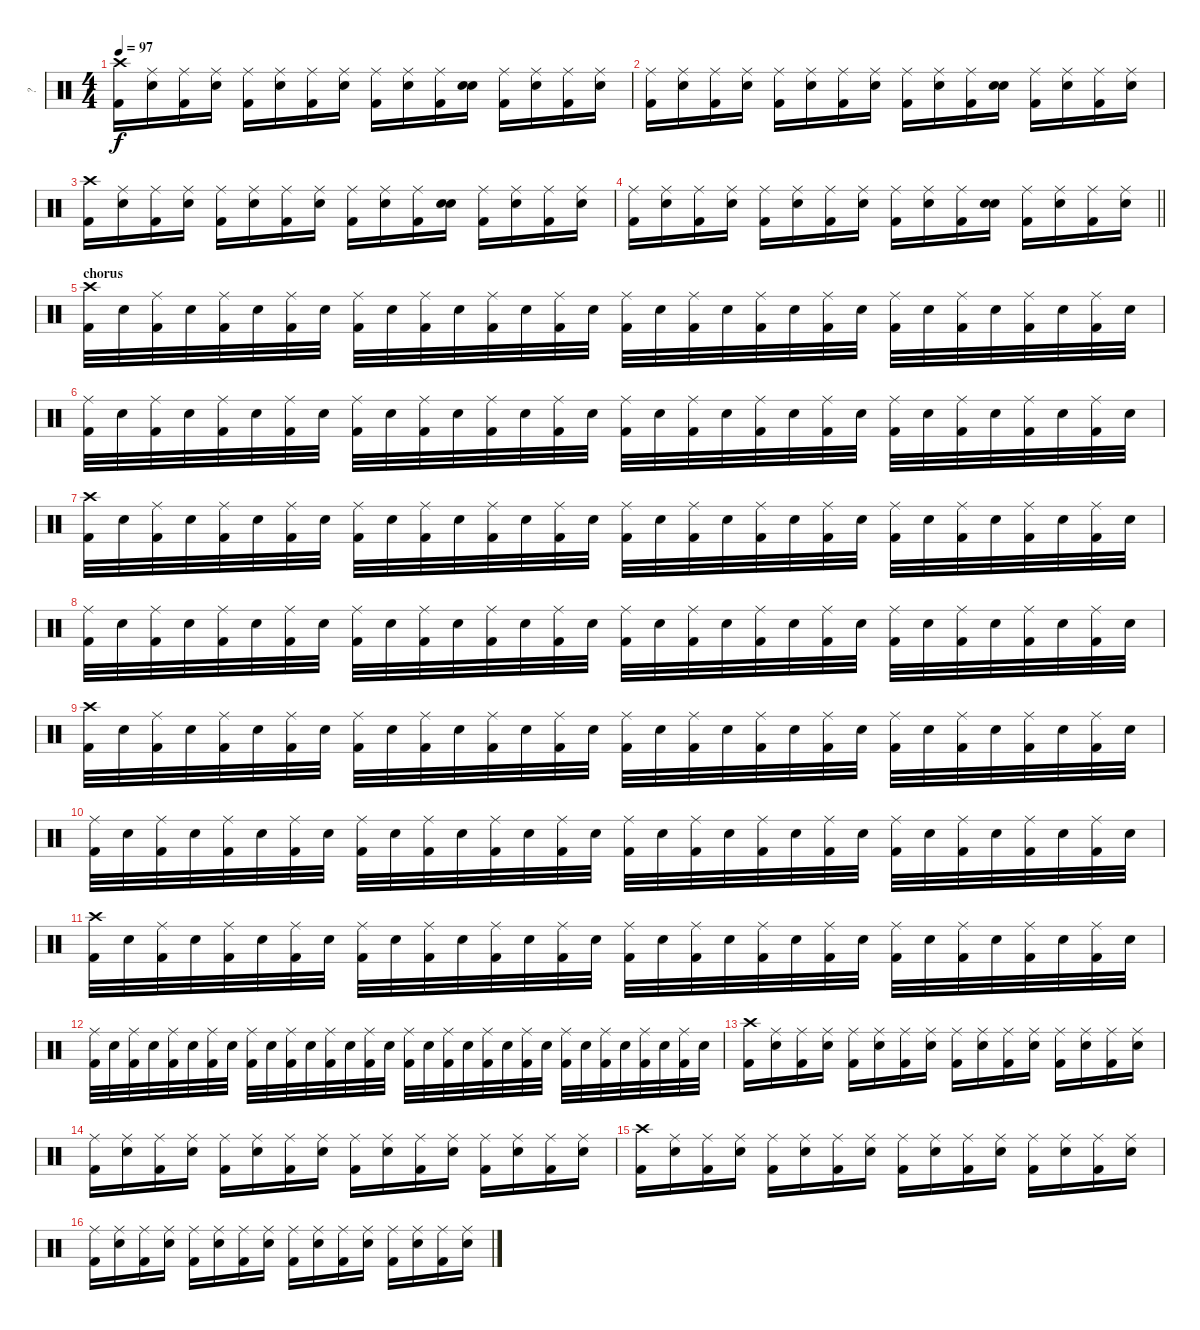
\track ("?" "?") {instrument percussion}
\staff {score}
\articulation defaults
\ts (4 4)
\tempo 97
\clef neutral
\ks c
("Crash high (hit)" "Kick (hit) 2").16{dy f} ("Ride (middle)" "Electric Snare (hit)").16 ("Ride (middle)" "Kick (hit) 2").16 ("Ride (middle)" "Electric Snare (hit)").16 ("Ride (middle)" "Kick (hit) 2").16 ("Ride (middle)" "Electric Snare (hit)").16 ("Ride (middle)" "Kick (hit) 2").16 ("Ride (middle)" "Electric Snare (hit)").16 ("Ride (middle)" "Kick (hit) 2").16 ("Ride (middle)" "Electric Snare (hit)").16 ("Ride (middle)" "Kick (hit) 2").16 ("Snare (hit)" "Electric Snare (hit)").16 ("Ride (middle)" "Kick (hit) 2").16 ("Ride (middle)" "Electric Snare (hit)").16 ("Ride (middle)" "Kick (hit) 2").16 ("Ride (middle)" "Electric Snare (hit)").16 |
("Ride (middle)" "Kick (hit) 2").16 ("Ride (middle)" "Electric Snare (hit)").16 ("Ride (middle)" "Kick (hit) 2").16 ("Ride (middle)" "Electric Snare (hit)").16 ("Ride (middle)" "Kick (hit) 2").16 ("Ride (middle)" "Electric Snare (hit)").16 ("Ride (middle)" "Kick (hit) 2").16 ("Ride (middle)" "Electric Snare (hit)").16 ("Ride (middle)" "Kick (hit) 2").16 ("Ride (middle)" "Electric Snare (hit)").16 ("Ride (middle)" "Kick (hit) 2").16 ("Snare (hit)" "Electric Snare (hit)").16 ("Ride (middle)" "Kick (hit) 2").16 ("Ride (middle)" "Electric Snare (hit)").16 ("Ride (middle)" "Kick (hit) 2").16 ("Ride (middle)" "Electric Snare (hit)").16 |
("Crash high (hit)" "Kick (hit) 2").16 ("Ride (middle)" "Electric Snare (hit)").16 ("Ride (middle)" "Kick (hit) 2").16 ("Ride (middle)" "Electric Snare (hit)").16 ("Ride (middle)" "Kick (hit) 2").16 ("Ride (middle)" "Electric Snare (hit)").16 ("Ride (middle)" "Kick (hit) 2").16 ("Ride (middle)" "Electric Snare (hit)").16 ("Ride (middle)" "Kick (hit) 2").16 ("Ride (middle)" "Electric Snare (hit)").16 ("Ride (middle)" "Kick (hit) 2").16 ("Snare (hit)" "Electric Snare (hit)").16 ("Ride (middle)" "Kick (hit) 2").16 ("Ride (middle)" "Electric Snare (hit)").16 ("Ride (middle)" "Kick (hit) 2").16 ("Ride (middle)" "Electric Snare (hit)").16 |
\barLineRight lightlight
("Ride (middle)" "Kick (hit) 2").16 ("Ride (middle)" "Electric Snare (hit)").16 ("Ride (middle)" "Kick (hit) 2").16 ("Ride (middle)" "Electric Snare (hit)").16 ("Ride (middle)" "Kick (hit) 2").16 ("Ride (middle)" "Electric Snare (hit)").16 ("Ride (middle)" "Kick (hit) 2").16 ("Ride (middle)" "Electric Snare (hit)").16 ("Ride (middle)" "Kick (hit) 2").16 ("Ride (middle)" "Electric Snare (hit)").16 ("Ride (middle)" "Kick (hit) 2").16 ("Snare (hit)" "Electric Snare (hit)").16 ("Ride (middle)" "Kick (hit) 2").16 ("Ride (middle)" "Electric Snare (hit)").16 ("Ride (middle)" "Kick (hit) 2").16 ("Ride (middle)" "Electric Snare (hit)").16 |
\section ("" "chorus")
("Crash high (hit)" "Kick (hit) 2").32 "Electric Snare (hit)".32 ("Ride (middle)" "Kick (hit) 2").32 "Electric Snare (hit)".32 ("Ride (middle)" "Kick (hit) 2").32 "Electric Snare (hit)".32 ("Ride (middle)" "Kick (hit) 2").32 "Electric Snare (hit)".32 ("Ride (middle)" "Kick (hit) 2").32 "Electric Snare (hit)".32 ("Ride (middle)" "Kick (hit) 2").32 "Electric Snare (hit)".32 ("Ride (middle)" "Kick (hit) 2").32 "Electric Snare (hit)".32 ("Ride (middle)" "Kick (hit) 2").32 "Electric Snare (hit)".32 ("Ride (middle)" "Kick (hit) 2").32 "Electric Snare (hit)".32 ("Ride (middle)" "Kick (hit) 2").32 "Electric Snare (hit)".32 ("Ride (middle)" "Kick (hit) 2").32 "Electric Snare (hit)".32 ("Ride (middle)" "Kick (hit) 2").32 "Electric Snare (hit)".32 ("Ride (middle)" "Kick (hit) 2").32 "Electric Snare (hit)".32 ("Ride (middle)" "Kick (hit) 2").32 "Electric Snare (hit)".32 ("Ride (middle)" "Kick (hit) 2").32 "Electric Snare (hit)".32 ("Ride (middle)" "Kick (hit) 2").32 "Electric Snare (hit)".32 |
("Ride (middle)" "Kick (hit) 2").32 "Electric Snare (hit)".32 ("Ride (middle)" "Kick (hit) 2").32 "Electric Snare (hit)".32 ("Ride (middle)" "Kick (hit) 2").32 "Electric Snare (hit)".32 ("Ride (middle)" "Kick (hit) 2").32 "Electric Snare (hit)".32 ("Ride (middle)" "Kick (hit) 2").32 "Electric Snare (hit)".32 ("Ride (middle)" "Kick (hit) 2").32 "Electric Snare (hit)".32 ("Ride (middle)" "Kick (hit) 2").32 "Electric Snare (hit)".32 ("Ride (middle)" "Kick (hit) 2").32 "Electric Snare (hit)".32 ("Ride (middle)" "Kick (hit) 2").32 "Electric Snare (hit)".32 ("Ride (middle)" "Kick (hit) 2").32 "Electric Snare (hit)".32 ("Ride (middle)" "Kick (hit) 2").32 "Electric Snare (hit)".32 ("Ride (middle)" "Kick (hit) 2").32 "Electric Snare (hit)".32 ("Ride (middle)" "Kick (hit) 2").32 "Electric Snare (hit)".32 ("Ride (middle)" "Kick (hit) 2").32 "Electric Snare (hit)".32 ("Ride (middle)" "Kick (hit) 2").32 "Electric Snare (hit)".32 ("Ride (middle)" "Kick (hit) 2").32 "Electric Snare (hit)".32 |
("Crash high (hit)" "Kick (hit) 2").32 "Electric Snare (hit)".32 ("Ride (middle)" "Kick (hit) 2").32 "Electric Snare (hit)".32 ("Ride (middle)" "Kick (hit) 2").32 "Electric Snare (hit)".32 ("Ride (middle)" "Kick (hit) 2").32 "Electric Snare (hit)".32 ("Ride (middle)" "Kick (hit) 2").32 "Electric Snare (hit)".32 ("Ride (middle)" "Kick (hit) 2").32 "Electric Snare (hit)".32 ("Ride (middle)" "Kick (hit) 2").32 "Electric Snare (hit)".32 ("Ride (middle)" "Kick (hit) 2").32 "Electric Snare (hit)".32 ("Ride (middle)" "Kick (hit) 2").32 "Electric Snare (hit)".32 ("Ride (middle)" "Kick (hit) 2").32 "Electric Snare (hit)".32 ("Ride (middle)" "Kick (hit) 2").32 "Electric Snare (hit)".32 ("Ride (middle)" "Kick (hit) 2").32 "Electric Snare (hit)".32 ("Ride (middle)" "Kick (hit) 2").32 "Electric Snare (hit)".32 ("Ride (middle)" "Kick (hit) 2").32 "Electric Snare (hit)".32 ("Ride (middle)" "Kick (hit) 2").32 "Electric Snare (hit)".32 ("Ride (middle)" "Kick (hit) 2").32 "Electric Snare (hit)".32 |
("Ride (middle)" "Kick (hit) 2").32 "Electric Snare (hit)".32 ("Ride (middle)" "Kick (hit) 2").32 "Electric Snare (hit)".32 ("Ride (middle)" "Kick (hit) 2").32 "Electric Snare (hit)".32 ("Ride (middle)" "Kick (hit) 2").32 "Electric Snare (hit)".32 ("Ride (middle)" "Kick (hit) 2").32 "Electric Snare (hit)".32 ("Ride (middle)" "Kick (hit) 2").32 "Electric Snare (hit)".32 ("Ride (middle)" "Kick (hit) 2").32 "Electric Snare (hit)".32 ("Ride (middle)" "Kick (hit) 2").32 "Electric Snare (hit)".32 ("Ride (middle)" "Kick (hit) 2").32 "Electric Snare (hit)".32 ("Ride (middle)" "Kick (hit) 2").32 "Electric Snare (hit)".32 ("Ride (middle)" "Kick (hit) 2").32 "Electric Snare (hit)".32 ("Ride (middle)" "Kick (hit) 2").32 "Electric Snare (hit)".32 ("Ride (middle)" "Kick (hit) 2").32 "Electric Snare (hit)".32 ("Ride (middle)" "Kick (hit) 2").32 "Electric Snare (hit)".32 ("Ride (middle)" "Kick (hit) 2").32 "Electric Snare (hit)".32 ("Ride (middle)" "Kick (hit) 2").32 "Electric Snare (hit)".32 |
("Crash high (hit)" "Kick (hit) 2").32 "Electric Snare (hit)".32 ("Ride (middle)" "Kick (hit) 2").32 "Electric Snare (hit)".32 ("Ride (middle)" "Kick (hit) 2").32 "Electric Snare (hit)".32 ("Ride (middle)" "Kick (hit) 2").32 "Electric Snare (hit)".32 ("Ride (middle)" "Kick (hit) 2").32 "Electric Snare (hit)".32 ("Ride (middle)" "Kick (hit) 2").32 "Electric Snare (hit)".32 ("Ride (middle)" "Kick (hit) 2").32 "Electric Snare (hit)".32 ("Ride (middle)" "Kick (hit) 2").32 "Electric Snare (hit)".32 ("Ride (middle)" "Kick (hit) 2").32 "Electric Snare (hit)".32 ("Ride (middle)" "Kick (hit) 2").32 "Electric Snare (hit)".32 ("Ride (middle)" "Kick (hit) 2").32 "Electric Snare (hit)".32 ("Ride (middle)" "Kick (hit) 2").32 "Electric Snare (hit)".32 ("Ride (middle)" "Kick (hit) 2").32 "Electric Snare (hit)".32 ("Ride (middle)" "Kick (hit) 2").32 "Electric Snare (hit)".32 ("Ride (middle)" "Kick (hit) 2").32 "Electric Snare (hit)".32 ("Ride (middle)" "Kick (hit) 2").32 "Electric Snare (hit)".32 |
("Ride (middle)" "Kick (hit) 2").32 "Electric Snare (hit)".32 ("Ride (middle)" "Kick (hit) 2").32 "Electric Snare (hit)".32 ("Ride (middle)" "Kick (hit) 2").32 "Electric Snare (hit)".32 ("Ride (middle)" "Kick (hit) 2").32 "Electric Snare (hit)".32 ("Ride (middle)" "Kick (hit) 2").32 "Electric Snare (hit)".32 ("Ride (middle)" "Kick (hit) 2").32 "Electric Snare (hit)".32 ("Ride (middle)" "Kick (hit) 2").32 "Electric Snare (hit)".32 ("Ride (middle)" "Kick (hit) 2").32 "Electric Snare (hit)".32 ("Ride (middle)" "Kick (hit) 2").32 "Electric Snare (hit)".32 ("Ride (middle)" "Kick (hit) 2").32 "Electric Snare (hit)".32 ("Ride (middle)" "Kick (hit) 2").32 "Electric Snare (hit)".32 ("Ride (middle)" "Kick (hit) 2").32 "Electric Snare (hit)".32 ("Ride (middle)" "Kick (hit) 2").32 "Electric Snare (hit)".32 ("Ride (middle)" "Kick (hit) 2").32 "Electric Snare (hit)".32 ("Ride (middle)" "Kick (hit) 2").32 "Electric Snare (hit)".32 ("Ride (middle)" "Kick (hit) 2").32 "Electric Snare (hit)".32 |
("Crash high (hit)" "Kick (hit) 2").32 "Electric Snare (hit)".32 ("Ride (middle)" "Kick (hit) 2").32 "Electric Snare (hit)".32 ("Ride (middle)" "Kick (hit) 2").32 "Electric Snare (hit)".32 ("Ride (middle)" "Kick (hit) 2").32 "Electric Snare (hit)".32 ("Ride (middle)" "Kick (hit) 2").32 "Electric Snare (hit)".32 ("Ride (middle)" "Kick (hit) 2").32 "Electric Snare (hit)".32 ("Ride (middle)" "Kick (hit) 2").32 "Electric Snare (hit)".32 ("Ride (middle)" "Kick (hit) 2").32 "Electric Snare (hit)".32 ("Ride (middle)" "Kick (hit) 2").32 "Electric Snare (hit)".32 ("Ride (middle)" "Kick (hit) 2").32 "Electric Snare (hit)".32 ("Ride (middle)" "Kick (hit) 2").32 "Electric Snare (hit)".32 ("Ride (middle)" "Kick (hit) 2").32 "Electric Snare (hit)".32 ("Ride (middle)" "Kick (hit) 2").32 "Electric Snare (hit)".32 ("Ride (middle)" "Kick (hit) 2").32 "Electric Snare (hit)".32 ("Ride (middle)" "Kick (hit) 2").32 "Electric Snare (hit)".32 ("Ride (middle)" "Kick (hit) 2").32 "Electric Snare (hit)".32 |
("Ride (middle)" "Kick (hit) 2").32 "Electric Snare (hit)".32 ("Ride (middle)" "Kick (hit) 2").32 "Electric Snare (hit)".32 ("Ride (middle)" "Kick (hit) 2").32 "Electric Snare (hit)".32 ("Ride (middle)" "Kick (hit) 2").32 "Electric Snare (hit)".32 ("Ride (middle)" "Kick (hit) 2").32 "Electric Snare (hit)".32 ("Ride (middle)" "Kick (hit) 2").32 "Electric Snare (hit)".32 ("Ride (middle)" "Kick (hit) 2").32 "Electric Snare (hit)".32 ("Ride (middle)" "Kick (hit) 2").32 "Electric Snare (hit)".32 ("Ride (middle)" "Kick (hit) 2").32 "Electric Snare (hit)".32 ("Ride (middle)" "Kick (hit) 2").32 "Electric Snare (hit)".32 ("Ride (middle)" "Kick (hit) 2").32 "Electric Snare (hit)".32 ("Ride (middle)" "Kick (hit) 2").32 "Electric Snare (hit)".32 ("Ride (middle)" "Kick (hit) 2").32 "Electric Snare (hit)".32 ("Ride (middle)" "Kick (hit) 2").32 "Electric Snare (hit)".32 ("Ride (middle)" "Kick (hit) 2").32 "Electric Snare (hit)".32 ("Ride (middle)" "Kick (hit) 2").32 "Electric Snare (hit)".32 |
("Crash high (hit)" "Kick (hit) 2").16 ("Ride (middle)" "Electric Snare (hit)").16 ("Ride (middle)" "Kick (hit) 2").16 ("Ride (middle)" "Electric Snare (hit)").16 ("Ride (middle)" "Kick (hit) 2").16 ("Ride (middle)" "Electric Snare (hit)").16 ("Ride (middle)" "Kick (hit) 2").16 ("Ride (middle)" "Electric Snare (hit)").16 ("Ride (middle)" "Kick (hit) 2").16 ("Ride (middle)" "Electric Snare (hit)").16 ("Ride (middle)" "Kick (hit) 2").16 ("Ride (middle)" "Electric Snare (hit)").16 ("Ride (middle)" "Kick (hit) 2").16 ("Ride (middle)" "Electric Snare (hit)").16 ("Ride (middle)" "Kick (hit) 2").16 ("Ride (middle)" "Electric Snare (hit)").16 |
("Ride (middle)" "Kick (hit) 2").16 ("Ride (middle)" "Electric Snare (hit)").16 ("Ride (middle)" "Kick (hit) 2").16 ("Ride (middle)" "Electric Snare (hit)").16 ("Ride (middle)" "Kick (hit) 2").16 ("Ride (middle)" "Electric Snare (hit)").16 ("Ride (middle)" "Kick (hit) 2").16 ("Ride (middle)" "Electric Snare (hit)").16 ("Ride (middle)" "Kick (hit) 2").16 ("Ride (middle)" "Electric Snare (hit)").16 ("Ride (middle)" "Kick (hit) 2").16 ("Ride (middle)" "Electric Snare (hit)").16 ("Ride (middle)" "Kick (hit) 2").16 ("Ride (middle)" "Electric Snare (hit)").16 ("Ride (middle)" "Kick (hit) 2").16 ("Ride (middle)" "Electric Snare (hit)").16 |
("Crash high (hit)" "Kick (hit) 2").16 ("Ride (middle)" "Electric Snare (hit)").16 ("Ride (middle)" "Kick (hit) 2").16 ("Ride (middle)" "Electric Snare (hit)").16 ("Ride (middle)" "Kick (hit) 2").16 ("Ride (middle)" "Electric Snare (hit)").16 ("Ride (middle)" "Kick (hit) 2").16 ("Ride (middle)" "Electric Snare (hit)").16 ("Ride (middle)" "Kick (hit) 2").16 ("Ride (middle)" "Electric Snare (hit)").16 ("Ride (middle)" "Kick (hit) 2").16 ("Ride (middle)" "Electric Snare (hit)").16 ("Ride (middle)" "Kick (hit) 2").16 ("Ride (middle)" "Electric Snare (hit)").16 ("Ride (middle)" "Kick (hit) 2").16 ("Ride (middle)" "Electric Snare (hit)").16 |
("Ride (middle)" "Kick (hit) 2").16 ("Ride (middle)" "Electric Snare (hit)").16 ("Ride (middle)" "Kick (hit) 2").16 ("Ride (middle)" "Electric Snare (hit)").16 ("Ride (middle)" "Kick (hit) 2").16 ("Ride (middle)" "Electric Snare (hit)").16 ("Ride (middle)" "Kick (hit) 2").16 ("Ride (middle)" "Electric Snare (hit)").16 ("Ride (middle)" "Kick (hit) 2").16 ("Ride (middle)" "Electric Snare (hit)").16 ("Ride (middle)" "Kick (hit) 2").16 ("Ride (middle)" "Electric Snare (hit)").16 ("Ride (middle)" "Kick (hit) 2").16 ("Ride (middle)" "Electric Snare (hit)").16 ("Ride (middle)" "Kick (hit) 2").16 ("Ride (middle)" "Electric Snare (hit)").16
